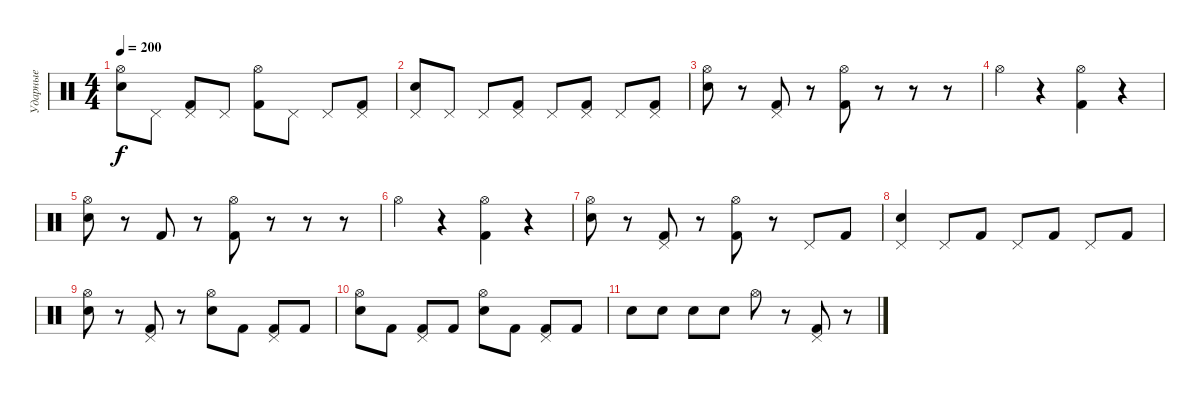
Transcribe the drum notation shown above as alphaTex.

\track ("Ударные" "Ударные") {instrument percussion}
\staff {score}
\articulation defaults
\ts (4 4)
\tempo 200
\clef neutral
\ks c
("Hi-Hat (open)" "Electric Snare (hit)").8{dy f} "Pedal Hi-Hat (hit)".8 ("Pedal Hi-Hat (hit)" "Kick (hit) 2").8 "Pedal Hi-Hat (hit)".8 ("Hi-Hat (open)" "Kick (hit) 2").8 "Pedal Hi-Hat (hit)".8 "Pedal Hi-Hat (hit)".8 ("Pedal Hi-Hat (hit)" "Kick (hit) 2").8 |
("Pedal Hi-Hat (hit)" "Electric Snare (hit)").8 "Pedal Hi-Hat (hit)".8 "Pedal Hi-Hat (hit)".8 ("Pedal Hi-Hat (hit)" "Kick (hit) 2").8 "Pedal Hi-Hat (hit)".8 ("Pedal Hi-Hat (hit)" "Kick (hit) 2").8 "Pedal Hi-Hat (hit)".8 ("Pedal Hi-Hat (hit)" "Kick (hit) 2").8 |
("Hi-Hat (open)" "Electric Snare (hit)").8 r.8 ("Pedal Hi-Hat (hit)" "Kick (hit) 2").8 r.8 ("Hi-Hat (open)" "Kick (hit) 2").8 r.8 r.8 r.8 |
"Hi-Hat (open)".4 r.4 ("Hi-Hat (open)" "Kick (hit) 2").4 r.4 |
("Hi-Hat (open)" "Electric Snare (hit)").8 r.8 "Kick (hit) 2".8 r.8 ("Hi-Hat (open)" "Kick (hit) 2").8 r.8 r.8 r.8 |
"Hi-Hat (open)".4 r.4 ("Hi-Hat (open)" "Kick (hit) 2").4 r.4 |
("Hi-Hat (open)" "Electric Snare (hit)").8 r.8 ("Pedal Hi-Hat (hit)" "Kick (hit) 2").8 r.8 ("Hi-Hat (open)" "Kick (hit) 2").8 r.8 "Pedal Hi-Hat (hit)".8 "Kick (hit) 2".8 |
("Pedal Hi-Hat (hit)" "Electric Snare (hit)").4 "Pedal Hi-Hat (hit)".8 "Kick (hit) 2".8 "Pedal Hi-Hat (hit)".8 "Kick (hit) 2".8 "Pedal Hi-Hat (hit)".8 "Kick (hit) 2".8 |
("Hi-Hat (open)" "Electric Snare (hit)").8 r.8 ("Pedal Hi-Hat (hit)" "Kick (hit) 2").8 r.8 ("Hi-Hat (open)" "Electric Snare (hit)").8 "Kick (hit) 2".8 ("Pedal Hi-Hat (hit)" "Kick (hit) 2").8 "Kick (hit) 2".8 |
("Hi-Hat (open)" "Electric Snare (hit)").8 "Kick (hit) 2".8 ("Pedal Hi-Hat (hit)" "Kick (hit) 2").8 "Kick (hit) 2".8 ("Hi-Hat (open)" "Electric Snare (hit)").8 "Kick (hit) 2".8 ("Pedal Hi-Hat (hit)" "Kick (hit) 2").8 "Kick (hit) 2".8 |
"Electric Snare (hit)".8 "Electric Snare (hit)".8 "Electric Snare (hit)".8 "Electric Snare (hit)".8 "Hi-Hat (open)".8 r.8 ("Pedal Hi-Hat (hit)" "Kick (hit) 2").8 r.8
